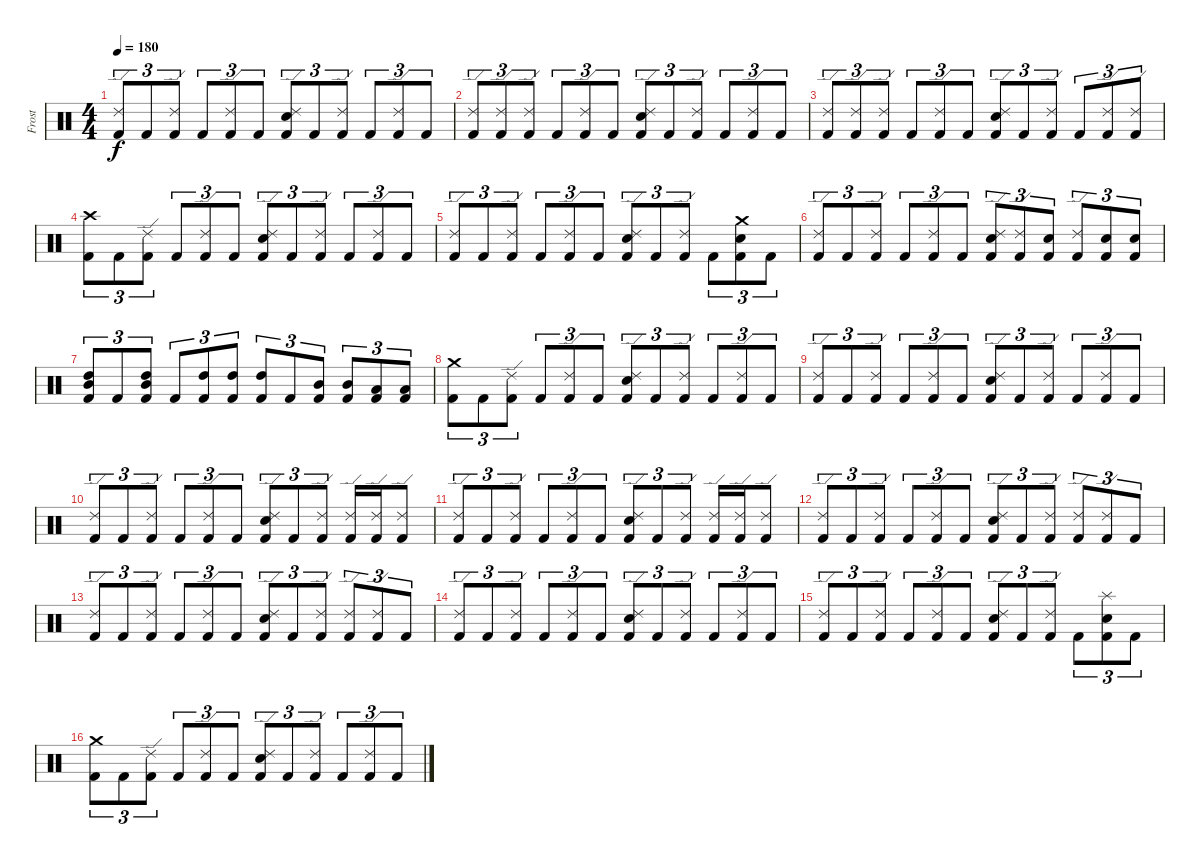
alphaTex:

\track ("Frost" "Frost") {instrument percussion}
\staff {score}
\articulation defaults
\ts (4 4)
\tempo 180
\clef neutral
\ks c
("Ride (edge) 2" "Kick (hit) 2").8{tu (3 2) dy f} "Kick (hit) 2".8{tu (3 2)} ("Ride (edge) 2" "Kick (hit) 2").8{tu (3 2)} "Kick (hit) 2".8{tu (3 2)} ("Ride (edge) 2" "Kick (hit) 2").8{tu (3 2)} "Kick (hit) 2".8{tu (3 2)} ("Ride (edge) 2" "Electric Snare (hit)" "Kick (hit) 2").8{tu (3 2)} "Kick (hit) 2".8{tu (3 2)} ("Ride (edge) 2" "Kick (hit) 2").8{tu (3 2)} "Kick (hit) 2".8{tu (3 2)} ("Ride (edge) 2" "Kick (hit) 2").8{tu (3 2)} "Kick (hit) 2".8{tu (3 2)} |
("Ride (edge) 2" "Kick (hit) 2").8{tu (3 2)} ("Ride (edge) 2" "Kick (hit) 2").8{tu (3 2)} ("Ride (edge) 2" "Kick (hit) 2").8{tu (3 2)} "Kick (hit) 2".8{tu (3 2)} ("Ride (edge) 2" "Kick (hit) 2").8{tu (3 2)} "Kick (hit) 2".8{tu (3 2)} ("Ride (edge) 2" "Electric Snare (hit)" "Kick (hit) 2").8{tu (3 2)} "Kick (hit) 2".8{tu (3 2)} ("Ride (edge) 2" "Kick (hit) 2").8{tu (3 2)} "Kick (hit) 2".8{tu (3 2)} ("Ride (edge) 2" "Kick (hit) 2").8{tu (3 2)} "Kick (hit) 2".8{tu (3 2)} |
("Ride (edge) 2" "Kick (hit) 2").8{tu (3 2)} ("Ride (edge) 2" "Kick (hit) 2").8{tu (3 2)} ("Ride (edge) 2" "Kick (hit) 2").8{tu (3 2)} "Kick (hit) 2".8{tu (3 2)} ("Ride (edge) 2" "Kick (hit) 2").8{tu (3 2)} "Kick (hit) 2".8{tu (3 2)} ("Ride (edge) 2" "Electric Snare (hit)" "Kick (hit) 2").8{tu (3 2)} "Kick (hit) 2".8{tu (3 2)} ("Ride (edge) 2" "Kick (hit) 2").8{tu (3 2)} "Kick (hit) 2".8{tu (3 2)} ("Ride (edge) 2" "Kick (hit) 2").8{tu (3 2)} ("Ride (edge) 2" "Kick (hit) 2").8{tu (3 2)} |
("Crash high (hit)" "Kick (hit) 2").8{tu (3 2)} "Kick (hit) 2".8{tu (3 2)} ("Ride (edge) 2" "Kick (hit) 2").8{tu (3 2)} "Kick (hit) 2".8{tu (3 2)} ("Ride (edge) 2" "Kick (hit) 2").8{tu (3 2)} "Kick (hit) 2".8{tu (3 2)} ("Ride (edge) 2" "Electric Snare (hit)" "Kick (hit) 2").8{tu (3 2)} "Kick (hit) 2".8{tu (3 2)} ("Ride (edge) 2" "Kick (hit) 2").8{tu (3 2)} "Kick (hit) 2".8{tu (3 2)} ("Ride (edge) 2" "Kick (hit) 2").8{tu (3 2)} "Kick (hit) 2".8{tu (3 2)} |
("Ride (edge) 2" "Kick (hit) 2").8{tu (3 2)} "Kick (hit) 2".8{tu (3 2)} ("Ride (edge) 2" "Kick (hit) 2").8{tu (3 2)} "Kick (hit) 2".8{tu (3 2)} ("Ride (edge) 2" "Kick (hit) 2").8{tu (3 2)} "Kick (hit) 2".8{tu (3 2)} ("Ride (edge) 2" "Electric Snare (hit)" "Kick (hit) 2").8{tu (3 2)} "Kick (hit) 2".8{tu (3 2)} ("Ride (edge) 2" "Kick (hit) 2").8{tu (3 2)} "Kick (hit) 2".8{tu (3 2)} ("Crash medium (hit)" "Electric Snare (hit)" "Kick (hit) 2").8{tu (3 2)} "Kick (hit) 2".8{tu (3 2)} |
("Ride (edge) 2" "Kick (hit) 2").8{tu (3 2)} "Kick (hit) 2".8{tu (3 2)} ("Ride (edge) 2" "Kick (hit) 2").8{tu (3 2)} "Kick (hit) 2".8{tu (3 2)} ("Ride (edge) 2" "Kick (hit) 2").8{tu (3 2)} "Kick (hit) 2".8{tu (3 2)} ("Ride (edge) 2" "Electric Snare (hit)" "Kick (hit) 2").8{tu (3 2)} ("Ride (edge) 2" "Kick (hit) 2").8{tu (3 2)} ("Electric Snare (hit)" "Kick (hit) 2").8{tu (3 2)} ("Ride (edge) 2" "Kick (hit) 2").8{tu (3 2)} ("Electric Snare (hit)" "Kick (hit) 2").8{tu (3 2)} ("Electric Snare (hit)" "Kick (hit) 2").8{tu (3 2)} |
("High Tom (hit)" "Mid Tom (hit)" "Kick (hit) 2").8{tu (3 2)} "Kick (hit) 2".8{tu (3 2)} ("High Tom (hit)" "Mid Tom (hit)" "Kick (hit) 2").8{tu (3 2)} "Kick (hit) 2".8{tu (3 2)} ("High Tom (hit)" "Kick (hit) 2").8{tu (3 2)} ("High Tom (hit)" "Kick (hit) 2").8{tu (3 2)} ("High Tom (hit)" "Kick (hit) 2").8{tu (3 2)} "Kick (hit) 2".8{tu (3 2)} ("Mid Tom (hit)" "Kick (hit) 2").8{tu (3 2)} ("Mid Tom (hit)" "Kick (hit) 2").8{tu (3 2)} ("Low Tom (hit)" "Kick (hit) 2").8{tu (3 2)} ("Low Tom (hit)" "Kick (hit) 2").8{tu (3 2)} |
("Crash medium (hit)" "Kick (hit) 2").8{tu (3 2)} "Kick (hit) 2".8{tu (3 2)} ("Ride (edge) 2" "Kick (hit) 2").8{tu (3 2)} "Kick (hit) 2".8{tu (3 2)} ("Ride (edge) 2" "Kick (hit) 2").8{tu (3 2)} "Kick (hit) 2".8{tu (3 2)} ("Ride (edge) 2" "Electric Snare (hit)" "Kick (hit) 2").8{tu (3 2)} "Kick (hit) 2".8{tu (3 2)} ("Ride (edge) 2" "Kick (hit) 2").8{tu (3 2)} "Kick (hit) 2".8{tu (3 2)} ("Ride (edge) 2" "Kick (hit) 2").8{tu (3 2)} "Kick (hit) 2".8{tu (3 2)} |
("Ride (edge) 2" "Kick (hit) 2").8{tu (3 2)} "Kick (hit) 2".8{tu (3 2)} ("Ride (edge) 2" "Kick (hit) 2").8{tu (3 2)} "Kick (hit) 2".8{tu (3 2)} ("Ride (edge) 2" "Kick (hit) 2").8{tu (3 2)} "Kick (hit) 2".8{tu (3 2)} ("Ride (edge) 2" "Electric Snare (hit)" "Kick (hit) 2").8{tu (3 2)} "Kick (hit) 2".8{tu (3 2)} ("Ride (edge) 2" "Kick (hit) 2").8{tu (3 2)} "Kick (hit) 2".8{tu (3 2)} ("Ride (edge) 2" "Kick (hit) 2").8{tu (3 2)} "Kick (hit) 2".8{tu (3 2)} |
("Ride (edge) 2" "Kick (hit) 2").8{tu (3 2)} "Kick (hit) 2".8{tu (3 2)} ("Ride (edge) 2" "Kick (hit) 2").8{tu (3 2)} "Kick (hit) 2".8{tu (3 2)} ("Ride (edge) 2" "Kick (hit) 2").8{tu (3 2)} "Kick (hit) 2".8{tu (3 2)} ("Ride (edge) 2" "Electric Snare (hit)" "Kick (hit) 2").8{tu (3 2)} "Kick (hit) 2".8{tu (3 2)} ("Ride (edge) 2" "Kick (hit) 2").8{tu (3 2)} ("Ride (edge) 2" "Kick (hit) 2").16 ("Ride (edge) 2" "Kick (hit) 2").16 ("Ride (edge) 2" "Kick (hit) 2").8 |
("Ride (edge) 2" "Kick (hit) 2").8{tu (3 2)} "Kick (hit) 2".8{tu (3 2)} ("Ride (edge) 2" "Kick (hit) 2").8{tu (3 2)} "Kick (hit) 2".8{tu (3 2)} ("Ride (edge) 2" "Kick (hit) 2").8{tu (3 2)} "Kick (hit) 2".8{tu (3 2)} ("Ride (edge) 2" "Electric Snare (hit)" "Kick (hit) 2").8{tu (3 2)} "Kick (hit) 2".8{tu (3 2)} ("Ride (edge) 2" "Kick (hit) 2").8{tu (3 2)} ("Ride (edge) 2" "Kick (hit) 2").16 ("Ride (edge) 2" "Kick (hit) 2").16 ("Ride (edge) 2" "Kick (hit) 2").8 |
("Ride (edge) 2" "Kick (hit) 2").8{tu (3 2)} "Kick (hit) 2".8{tu (3 2)} ("Ride (edge) 2" "Kick (hit) 2").8{tu (3 2)} "Kick (hit) 2".8{tu (3 2)} ("Ride (edge) 2" "Kick (hit) 2").8{tu (3 2)} "Kick (hit) 2".8{tu (3 2)} ("Ride (edge) 2" "Electric Snare (hit)" "Kick (hit) 2").8{tu (3 2)} "Kick (hit) 2".8{tu (3 2)} ("Ride (edge) 2" "Kick (hit) 2").8{tu (3 2)} ("Ride (edge) 2" "Kick (hit) 2").8{tu (3 2)} ("Ride (edge) 2" "Kick (hit) 2").8{tu (3 2)} "Kick (hit) 2".8{tu (3 2)} |
("Ride (edge) 2" "Kick (hit) 2").8{tu (3 2)} "Kick (hit) 2".8{tu (3 2)} ("Ride (edge) 2" "Kick (hit) 2").8{tu (3 2)} "Kick (hit) 2".8{tu (3 2)} ("Ride (edge) 2" "Kick (hit) 2").8{tu (3 2)} "Kick (hit) 2".8{tu (3 2)} ("Ride (edge) 2" "Electric Snare (hit)" "Kick (hit) 2").8{tu (3 2)} "Kick (hit) 2".8{tu (3 2)} ("Ride (edge) 2" "Kick (hit) 2").8{tu (3 2)} ("Ride (edge) 2" "Kick (hit) 2").8{tu (3 2)} ("Ride (edge) 2" "Kick (hit) 2").8{tu (3 2)} "Kick (hit) 2".8{tu (3 2)} |
("Ride (edge) 2" "Kick (hit) 2").8{tu (3 2)} "Kick (hit) 2".8{tu (3 2)} ("Ride (edge) 2" "Kick (hit) 2").8{tu (3 2)} "Kick (hit) 2".8{tu (3 2)} ("Ride (edge) 2" "Kick (hit) 2").8{tu (3 2)} "Kick (hit) 2".8{tu (3 2)} ("Ride (edge) 2" "Electric Snare (hit)" "Kick (hit) 2").8{tu (3 2)} "Kick (hit) 2".8{tu (3 2)} ("Ride (edge) 2" "Kick (hit) 2").8{tu (3 2)} "Kick (hit) 2".8{tu (3 2)} ("Ride (edge) 2" "Kick (hit) 2").8{tu (3 2)} "Kick (hit) 2".8{tu (3 2)} |
("Ride (edge) 2" "Kick (hit) 2").8{tu (3 2)} "Kick (hit) 2".8{tu (3 2)} ("Ride (edge) 2" "Kick (hit) 2").8{tu (3 2)} "Kick (hit) 2".8{tu (3 2)} ("Ride (edge) 2" "Kick (hit) 2").8{tu (3 2)} "Kick (hit) 2".8{tu (3 2)} ("Ride (edge) 2" "Electric Snare (hit)" "Kick (hit) 2").8{tu (3 2)} "Kick (hit) 2".8{tu (3 2)} ("Ride (edge) 2" "Kick (hit) 2").8{tu (3 2)} "Kick (hit) 2".8{tu (3 2)} ("Splash (hit)" "Electric Snare (hit)" "Kick (hit) 2").8{tu (3 2)} "Kick (hit) 2".8{tu (3 2)} |
("Crash medium (hit)" "Kick (hit) 2").8{tu (3 2)} "Kick (hit) 2".8{tu (3 2)} ("Ride (edge) 2" "Kick (hit) 2").8{tu (3 2)} "Kick (hit) 2".8{tu (3 2)} ("Ride (edge) 2" "Kick (hit) 2").8{tu (3 2)} "Kick (hit) 2".8{tu (3 2)} ("Ride (edge) 2" "Electric Snare (hit)" "Kick (hit) 2").8{tu (3 2)} "Kick (hit) 2".8{tu (3 2)} ("Ride (edge) 2" "Kick (hit) 2").8{tu (3 2)} "Kick (hit) 2".8{tu (3 2)} ("Ride (edge) 2" "Kick (hit) 2").8{tu (3 2)} "Kick (hit) 2".8{tu (3 2)}
